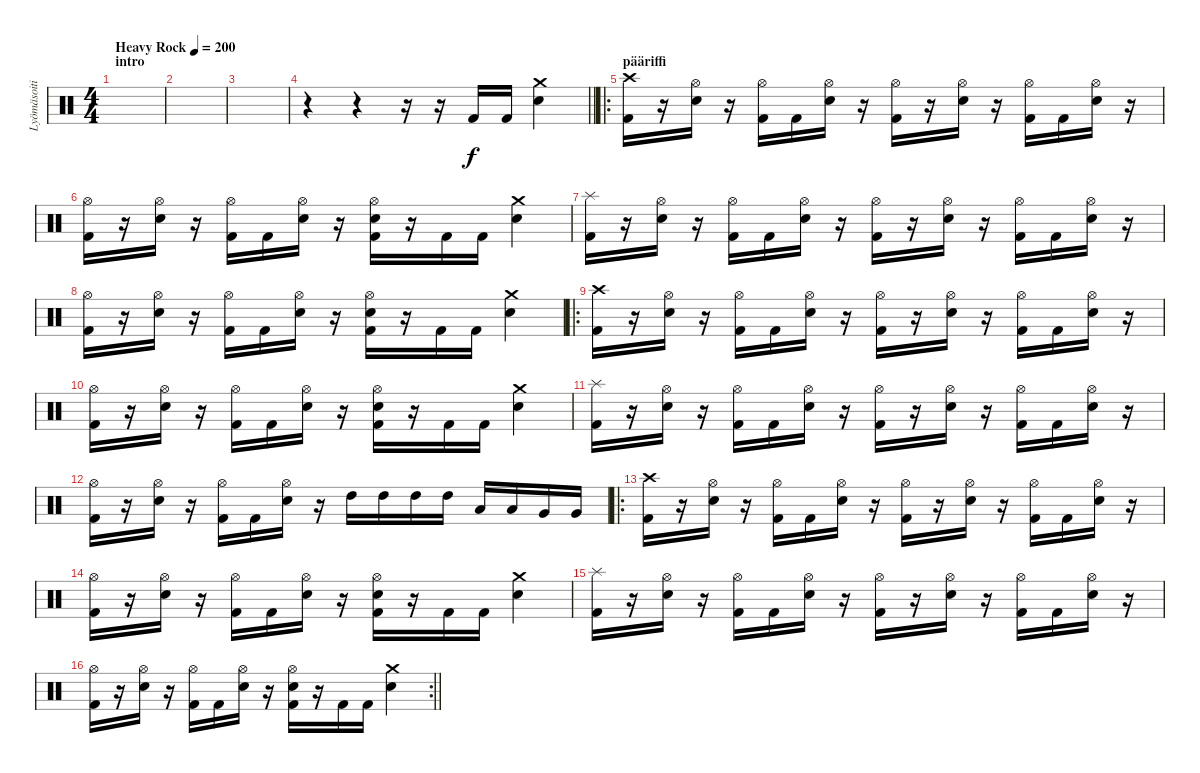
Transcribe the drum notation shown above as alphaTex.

\track ("Lyömäsoitin" "Lyömäsoiti") {instrument percussion}
\staff {score}
\articulation defaults
\ts (4 4)
\section ("" "intro")
\tempo (200 "Heavy Rock")
\clef neutral
\ks c
|
|
|
\barLineRight lightlight
r.4 r.4 r.16 r.16 "Kick (hit) 2".16 "Kick (hit) 2".16 ("Crash medium (hit)" "Electric Snare (hit)").4 |
\ro
\section ("" "pääriffi")
("Crash high (hit)" "Kick (hit) 2").16 r.16 ("Hi-Hat (open)" "Electric Snare (hit)").16 r.16 ("Hi-Hat (open)" "Kick (hit) 2").16 "Kick (hit) 2".16 ("Hi-Hat (open)" "Electric Snare (hit)").16 r.16 ("Hi-Hat (open)" "Kick (hit) 2").16 r.16 ("Hi-Hat (open)" "Electric Snare (hit)").16 r.16 ("Hi-Hat (open)" "Kick (hit) 2").16 "Kick (hit) 2".16 ("Hi-Hat (open)" "Electric Snare (hit)").16 r.16 |
("Hi-Hat (open)" "Kick (hit) 2").16 r.16 ("Hi-Hat (open)" "Electric Snare (hit)").16 r.16 ("Hi-Hat (open)" "Kick (hit) 2").16 "Kick (hit) 2".16 ("Hi-Hat (open)" "Electric Snare (hit)").16 r.16 ("Hi-Hat (open)" "Electric Snare (hit)" "Kick (hit) 2").16 r.16 "Kick (hit) 2".16 "Kick (hit) 2".16 ("Crash medium (hit)" "Electric Snare (hit)").4 |
("Splash (hit)" "Kick (hit) 2").16 r.16 ("Hi-Hat (open)" "Electric Snare (hit)").16 r.16 ("Hi-Hat (open)" "Kick (hit) 2").16 "Kick (hit) 2".16 ("Hi-Hat (open)" "Electric Snare (hit)").16 r.16 ("Hi-Hat (open)" "Kick (hit) 2").16 r.16 ("Hi-Hat (open)" "Electric Snare (hit)").16 r.16 ("Hi-Hat (open)" "Kick (hit) 2").16 "Kick (hit) 2".16 ("Hi-Hat (open)" "Electric Snare (hit)").16 r.16 |
("Hi-Hat (open)" "Kick (hit) 2").16 r.16 ("Hi-Hat (open)" "Electric Snare (hit)").16 r.16 ("Hi-Hat (open)" "Kick (hit) 2").16 "Kick (hit) 2".16 ("Hi-Hat (open)" "Electric Snare (hit)").16 r.16 ("Hi-Hat (open)" "Electric Snare (hit)" "Kick (hit) 2").16 r.16 "Kick (hit) 2".16 "Kick (hit) 2".16 ("Crash medium (hit)" "Electric Snare (hit)").4 |
\ro
("Crash high (hit)" "Kick (hit) 2").16 r.16 ("Hi-Hat (open)" "Electric Snare (hit)").16 r.16 ("Hi-Hat (open)" "Kick (hit) 2").16 "Kick (hit) 2".16 ("Hi-Hat (open)" "Electric Snare (hit)").16 r.16 ("Hi-Hat (open)" "Kick (hit) 2").16 r.16 ("Hi-Hat (open)" "Electric Snare (hit)").16 r.16 ("Hi-Hat (open)" "Kick (hit) 2").16 "Kick (hit) 2".16 ("Hi-Hat (open)" "Electric Snare (hit)").16 r.16 |
("Hi-Hat (open)" "Kick (hit) 2").16 r.16 ("Hi-Hat (open)" "Electric Snare (hit)").16 r.16 ("Hi-Hat (open)" "Kick (hit) 2").16 "Kick (hit) 2".16 ("Hi-Hat (open)" "Electric Snare (hit)").16 r.16 ("Hi-Hat (open)" "Electric Snare (hit)" "Kick (hit) 2").16 r.16 "Kick (hit) 2".16 "Kick (hit) 2".16 ("Crash medium (hit)" "Electric Snare (hit)").4 |
("Splash (hit)" "Kick (hit) 2").16 r.16 ("Hi-Hat (open)" "Electric Snare (hit)").16 r.16 ("Hi-Hat (open)" "Kick (hit) 2").16 "Kick (hit) 2".16 ("Hi-Hat (open)" "Electric Snare (hit)").16 r.16 ("Hi-Hat (open)" "Kick (hit) 2").16 r.16 ("Hi-Hat (open)" "Electric Snare (hit)").16 r.16 ("Hi-Hat (open)" "Kick (hit) 2").16 "Kick (hit) 2".16 ("Hi-Hat (open)" "Electric Snare (hit)").16 r.16 |
("Hi-Hat (open)" "Kick (hit) 2").16 r.16 ("Hi-Hat (open)" "Electric Snare (hit)").16 r.16 ("Hi-Hat (open)" "Kick (hit) 2").16 "Kick (hit) 2".16 ("Hi-Hat (open)" "Electric Snare (hit)").16 r.16 "High Tom (hit)".16 "High Tom (hit)".16 "High Tom (hit)".16 "High Tom (hit)".16 "Low Tom (hit)".16 "Low Tom (hit)".16 "Very Low Tom (hit)".16 "Very Low Tom (hit)".16 |
\ro
("Crash high (hit)" "Kick (hit) 2").16 r.16 ("Hi-Hat (open)" "Electric Snare (hit)").16 r.16 ("Hi-Hat (open)" "Kick (hit) 2").16 "Kick (hit) 2".16 ("Hi-Hat (open)" "Electric Snare (hit)").16 r.16 ("Hi-Hat (open)" "Kick (hit) 2").16 r.16 ("Hi-Hat (open)" "Electric Snare (hit)").16 r.16 ("Hi-Hat (open)" "Kick (hit) 2").16 "Kick (hit) 2".16 ("Hi-Hat (open)" "Electric Snare (hit)").16 r.16 |
("Hi-Hat (open)" "Kick (hit) 2").16 r.16 ("Hi-Hat (open)" "Electric Snare (hit)").16 r.16 ("Hi-Hat (open)" "Kick (hit) 2").16 "Kick (hit) 2".16 ("Hi-Hat (open)" "Electric Snare (hit)").16 r.16 ("Hi-Hat (open)" "Electric Snare (hit)" "Kick (hit) 2").16 r.16 "Kick (hit) 2".16 "Kick (hit) 2".16 ("Crash medium (hit)" "Electric Snare (hit)").4 |
("Splash (hit)" "Kick (hit) 2").16 r.16 ("Hi-Hat (open)" "Electric Snare (hit)").16 r.16 ("Hi-Hat (open)" "Kick (hit) 2").16 "Kick (hit) 2".16 ("Hi-Hat (open)" "Electric Snare (hit)").16 r.16 ("Hi-Hat (open)" "Kick (hit) 2").16 r.16 ("Hi-Hat (open)" "Electric Snare (hit)").16 r.16 ("Hi-Hat (open)" "Kick (hit) 2").16 "Kick (hit) 2".16 ("Hi-Hat (open)" "Electric Snare (hit)").16 r.16 |
\rc 2
\barLineRight lightlight
("Hi-Hat (open)" "Kick (hit) 2").16 r.16 ("Hi-Hat (open)" "Electric Snare (hit)").16 r.16 ("Hi-Hat (open)" "Kick (hit) 2").16 "Kick (hit) 2".16 ("Hi-Hat (open)" "Electric Snare (hit)").16 r.16 ("Hi-Hat (open)" "Electric Snare (hit)" "Kick (hit) 2").16 r.16 "Kick (hit) 2".16 "Kick (hit) 2".16 ("Crash medium (hit)" "Electric Snare (hit)").4
